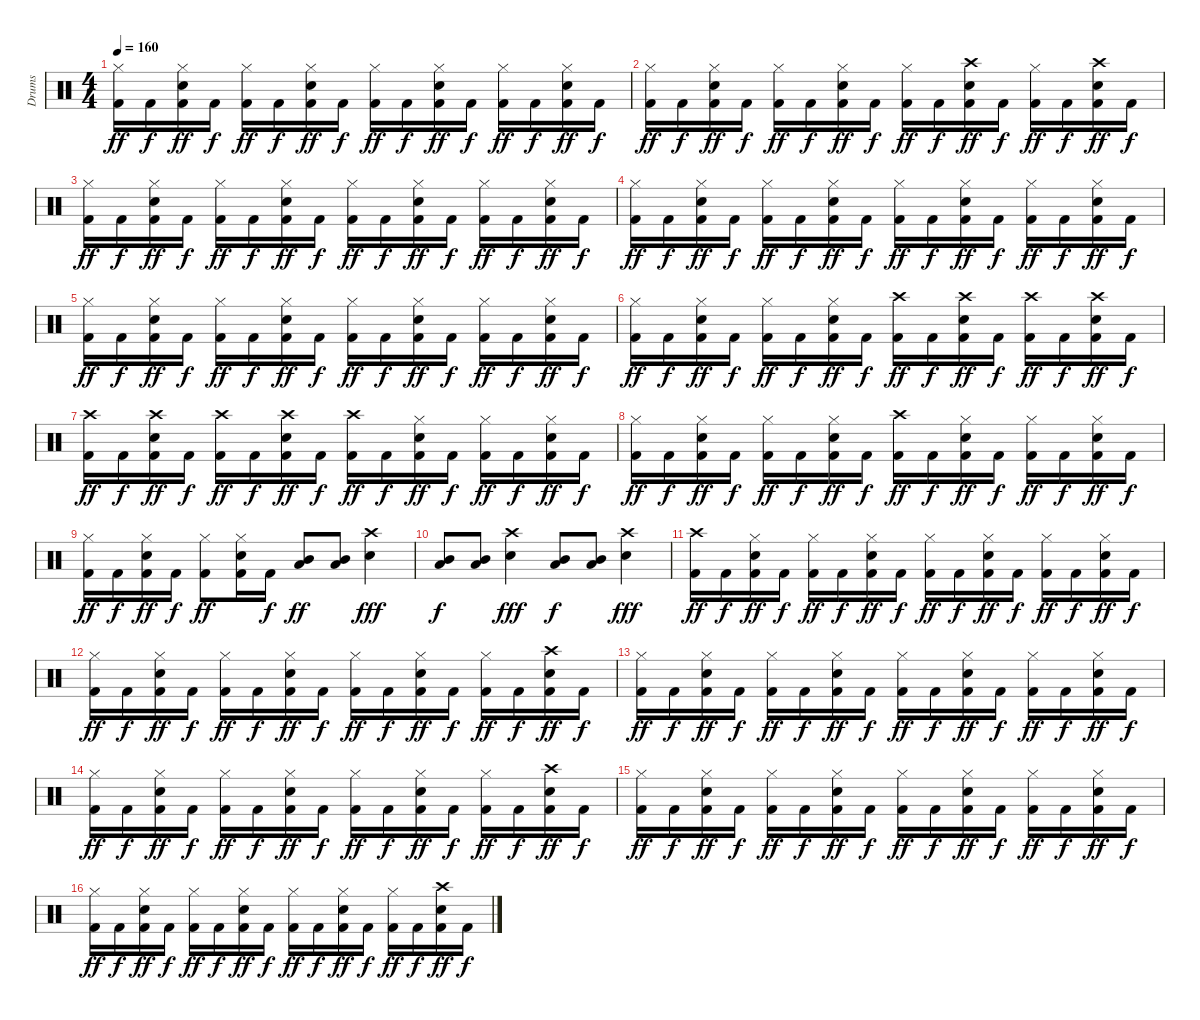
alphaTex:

\track ("Drums" "Drums") {instrument percussion}
\staff {score}
\articulation defaults
\ts (4 4)
\tempo 160
\clef neutral
\ks c
("Hi-Hat (closed)" "Kick (hit) 2").16{dy ff} "Kick (hit) 2".16{dy f} ("Hi-Hat (closed)" "Snare (hit) 2" "Kick (hit) 2").16{dy ff} "Kick (hit) 2".16{dy f} ("Hi-Hat (closed)" "Kick (hit) 2").16{dy ff} "Kick (hit) 2".16{dy f} ("Hi-Hat (closed)" "Snare (hit) 2" "Kick (hit) 2").16{dy ff} "Kick (hit) 2".16{dy f} ("Hi-Hat (closed)" "Kick (hit) 2").16{dy ff} "Kick (hit) 2".16{dy f} ("Hi-Hat (closed)" "Snare (hit) 2" "Kick (hit) 2").16{dy ff} "Kick (hit) 2".16{dy f} ("Hi-Hat (closed)" "Kick (hit) 2").16{dy ff} "Kick (hit) 2".16{dy f} ("Hi-Hat (closed)" "Snare (hit) 2" "Kick (hit) 2").16{dy ff} "Kick (hit) 2".16{dy f} |
("Hi-Hat (closed)" "Kick (hit) 2").16{dy ff} "Kick (hit) 2".16{dy f} ("Hi-Hat (closed)" "Snare (hit) 2" "Kick (hit) 2").16{dy ff} "Kick (hit) 2".16{dy f} ("Hi-Hat (closed)" "Kick (hit) 2").16{dy ff} "Kick (hit) 2".16{dy f} ("Hi-Hat (closed)" "Snare (hit) 2" "Kick (hit) 2").16{dy ff} "Kick (hit) 2".16{dy f} ("Hi-Hat (closed)" "Kick (hit) 2").16{dy ff} "Kick (hit) 2".16{dy f} ("Crash high (hit)" "Snare (hit) 2" "Kick (hit) 2").16{dy ff} "Kick (hit) 2".16{dy f} ("Hi-Hat (closed)" "Kick (hit) 2").16{dy ff} "Kick (hit) 2".16{dy f} ("Crash high (hit)" "Snare (hit) 2" "Kick (hit) 2").16{dy ff} "Kick (hit) 2".16{dy f} |
("Hi-Hat (closed)" "Kick (hit) 2").16{dy ff} "Kick (hit) 2".16{dy f} ("Hi-Hat (closed)" "Snare (hit) 2" "Kick (hit) 2").16{dy ff} "Kick (hit) 2".16{dy f} ("Hi-Hat (closed)" "Kick (hit) 2").16{dy ff} "Kick (hit) 2".16{dy f} ("Hi-Hat (closed)" "Snare (hit) 2" "Kick (hit) 2").16{dy ff} "Kick (hit) 2".16{dy f} ("Hi-Hat (closed)" "Kick (hit) 2").16{dy ff} "Kick (hit) 2".16{dy f} ("Hi-Hat (closed)" "Snare (hit) 2" "Kick (hit) 2").16{dy ff} "Kick (hit) 2".16{dy f} ("Hi-Hat (closed)" "Kick (hit) 2").16{dy ff} "Kick (hit) 2".16{dy f} ("Hi-Hat (closed)" "Snare (hit) 2" "Kick (hit) 2").16{dy ff} "Kick (hit) 2".16{dy f} |
("Hi-Hat (closed)" "Kick (hit) 2").16{dy ff} "Kick (hit) 2".16{dy f} ("Hi-Hat (closed)" "Snare (hit) 2" "Kick (hit) 2").16{dy ff} "Kick (hit) 2".16{dy f} ("Hi-Hat (closed)" "Kick (hit) 2").16{dy ff} "Kick (hit) 2".16{dy f} ("Hi-Hat (closed)" "Snare (hit) 2" "Kick (hit) 2").16{dy ff} "Kick (hit) 2".16{dy f} ("Hi-Hat (closed)" "Kick (hit) 2").16{dy ff} "Kick (hit) 2".16{dy f} ("Hi-Hat (closed)" "Snare (hit) 2" "Kick (hit) 2").16{dy ff} "Kick (hit) 2".16{dy f} ("Hi-Hat (closed)" "Kick (hit) 2").16{dy ff} "Kick (hit) 2".16{dy f} ("Hi-Hat (closed)" "Snare (hit) 2" "Kick (hit) 2").16{dy ff} "Kick (hit) 2".16{dy f} |
("Hi-Hat (closed)" "Kick (hit) 2").16{dy ff} "Kick (hit) 2".16{dy f} ("Hi-Hat (closed)" "Snare (hit) 2" "Kick (hit) 2").16{dy ff} "Kick (hit) 2".16{dy f} ("Hi-Hat (closed)" "Kick (hit) 2").16{dy ff} "Kick (hit) 2".16{dy f} ("Hi-Hat (closed)" "Snare (hit) 2" "Kick (hit) 2").16{dy ff} "Kick (hit) 2".16{dy f} ("Hi-Hat (closed)" "Kick (hit) 2").16{dy ff} "Kick (hit) 2".16{dy f} ("Hi-Hat (closed)" "Snare (hit) 2" "Kick (hit) 2").16{dy ff} "Kick (hit) 2".16{dy f} ("Hi-Hat (closed)" "Kick (hit) 2").16{dy ff} "Kick (hit) 2".16{dy f} ("Hi-Hat (closed)" "Snare (hit) 2" "Kick (hit) 2").16{dy ff} "Kick (hit) 2".16{dy f} |
("Hi-Hat (closed)" "Kick (hit) 2").16{dy ff} "Kick (hit) 2".16{dy f} ("Hi-Hat (closed)" "Snare (hit) 2" "Kick (hit) 2").16{dy ff} "Kick (hit) 2".16{dy f} ("Hi-Hat (closed)" "Kick (hit) 2").16{dy ff} "Kick (hit) 2".16{dy f} ("Hi-Hat (closed)" "Snare (hit) 2" "Kick (hit) 2").16{dy ff} "Kick (hit) 2".16{dy f} ("Crash high (hit)" "Kick (hit) 2").16{dy ff} "Kick (hit) 2".16{dy f} ("Crash high (hit)" "Snare (hit) 2" "Kick (hit) 2").16{dy ff} "Kick (hit) 2".16{dy f} ("Crash high (hit)" "Kick (hit) 2").16{dy ff} "Kick (hit) 2".16{dy f} ("Crash high (hit)" "Snare (hit) 2" "Kick (hit) 2").16{dy ff} "Kick (hit) 2".16{dy f} |
("Crash high (hit)" "Kick (hit) 2").16{dy ff} "Kick (hit) 2".16{dy f} ("Crash high (hit)" "Snare (hit) 2" "Kick (hit) 2").16{dy ff} "Kick (hit) 2".16{dy f} ("Crash high (hit)" "Kick (hit) 2").16{dy ff} "Kick (hit) 2".16{dy f} ("Crash high (hit)" "Snare (hit) 2" "Kick (hit) 2").16{dy ff} "Kick (hit) 2".16{dy f} ("Crash high (hit)" "Kick (hit) 2").16{dy ff} "Kick (hit) 2".16{dy f} ("Hi-Hat (closed)" "Snare (hit) 2" "Kick (hit) 2").16{dy ff} "Kick (hit) 2".16{dy f} ("Hi-Hat (closed)" "Kick (hit) 2").16{dy ff} "Kick (hit) 2".16{dy f} ("Hi-Hat (closed)" "Snare (hit) 2" "Kick (hit) 2").16{dy ff} "Kick (hit) 2".16{dy f} |
("Hi-Hat (closed)" "Kick (hit) 2").16{dy ff} "Kick (hit) 2".16{dy f} ("Hi-Hat (closed)" "Snare (hit) 2" "Kick (hit) 2").16{dy ff} "Kick (hit) 2".16{dy f} ("Hi-Hat (closed)" "Kick (hit) 2").16{dy ff} "Kick (hit) 2".16{dy f} ("Hi-Hat (closed)" "Snare (hit) 2" "Kick (hit) 2").16{dy ff} "Kick (hit) 2".16{dy f} ("Crash high (hit)" "Kick (hit) 2").16{dy ff} "Kick (hit) 2".16{dy f} ("Hi-Hat (closed)" "Snare (hit) 2" "Kick (hit) 2").16{dy ff} "Kick (hit) 2".16{dy f} ("Hi-Hat (closed)" "Kick (hit) 2").16{dy ff} "Kick (hit) 2".16{dy f} ("Hi-Hat (closed)" "Snare (hit) 2" "Kick (hit) 2").16{dy ff} "Kick (hit) 2".16{dy f} |
("Hi-Hat (closed)" "Kick (hit) 2").16{dy ff} "Kick (hit) 2".16{dy f} ("Hi-Hat (closed)" "Snare (hit) 2" "Kick (hit) 2").16{dy ff} "Kick (hit) 2".16{dy f} ("Hi-Hat (closed)" "Kick (hit) 2").8{dy ff} ("Hi-Hat (closed)" "Snare (hit) 2" "Kick (hit) 2").16 "Kick (hit) 2".16{dy f} ("Mid Tom (hit)" "Low Tom (hit)").8{dy ff} ("Mid Tom (hit)" "Low Tom (hit)").8 ("Crash high (hit)" "Snare (hit) 2").4{dy fff} |
("Mid Tom (hit)" "Low Tom (hit)").8{dy f} ("Mid Tom (hit)" "Low Tom (hit)").8 ("Crash high (hit)" "Snare (hit) 2").4{dy fff} ("Mid Tom (hit)" "Low Tom (hit)").8{dy f} ("Mid Tom (hit)" "Low Tom (hit)").8 ("Crash high (hit)" "Snare (hit) 2").4{dy fff} |
("Crash high (hit)" "Kick (hit) 2").16{dy ff} "Kick (hit) 2".16{dy f} ("Hi-Hat (closed)" "Snare (hit) 2" "Kick (hit) 2").16{dy ff} "Kick (hit) 2".16{dy f} ("Hi-Hat (closed)" "Kick (hit) 2").16{dy ff} "Kick (hit) 2".16{dy f} ("Hi-Hat (closed)" "Snare (hit) 2" "Kick (hit) 2").16{dy ff} "Kick (hit) 2".16{dy f} ("Hi-Hat (closed)" "Kick (hit) 2").16{dy ff} "Kick (hit) 2".16{dy f} ("Hi-Hat (closed)" "Snare (hit) 2" "Kick (hit) 2").16{dy ff} "Kick (hit) 2".16{dy f} ("Hi-Hat (closed)" "Kick (hit) 2").16{dy ff} "Kick (hit) 2".16{dy f} ("Hi-Hat (closed)" "Snare (hit) 2" "Kick (hit) 2").16{dy ff} "Kick (hit) 2".16{dy f} |
("Hi-Hat (closed)" "Kick (hit) 2").16{dy ff} "Kick (hit) 2".16{dy f} ("Hi-Hat (closed)" "Snare (hit) 2" "Kick (hit) 2").16{dy ff} "Kick (hit) 2".16{dy f} ("Hi-Hat (closed)" "Kick (hit) 2").16{dy ff} "Kick (hit) 2".16{dy f} ("Hi-Hat (closed)" "Snare (hit) 2" "Kick (hit) 2").16{dy ff} "Kick (hit) 2".16{dy f} ("Hi-Hat (closed)" "Kick (hit) 2").16{dy ff} "Kick (hit) 2".16{dy f} ("Hi-Hat (closed)" "Snare (hit) 2" "Kick (hit) 2").16{dy ff} "Kick (hit) 2".16{dy f} ("Hi-Hat (closed)" "Kick (hit) 2").16{dy ff} "Kick (hit) 2".16{dy f} ("Crash high (hit)" "Snare (hit) 2" "Kick (hit) 2").16{dy ff} "Kick (hit) 2".16{dy f} |
("Hi-Hat (closed)" "Kick (hit) 2").16{dy ff} "Kick (hit) 2".16{dy f} ("Hi-Hat (closed)" "Snare (hit) 2" "Kick (hit) 2").16{dy ff} "Kick (hit) 2".16{dy f} ("Hi-Hat (closed)" "Kick (hit) 2").16{dy ff} "Kick (hit) 2".16{dy f} ("Hi-Hat (closed)" "Snare (hit) 2" "Kick (hit) 2").16{dy ff} "Kick (hit) 2".16{dy f} ("Hi-Hat (closed)" "Kick (hit) 2").16{dy ff} "Kick (hit) 2".16{dy f} ("Hi-Hat (closed)" "Snare (hit) 2" "Kick (hit) 2").16{dy ff} "Kick (hit) 2".16{dy f} ("Hi-Hat (closed)" "Kick (hit) 2").16{dy ff} "Kick (hit) 2".16{dy f} ("Hi-Hat (closed)" "Snare (hit) 2" "Kick (hit) 2").16{dy ff} "Kick (hit) 2".16{dy f} |
("Hi-Hat (closed)" "Kick (hit) 2").16{dy ff} "Kick (hit) 2".16{dy f} ("Hi-Hat (closed)" "Snare (hit) 2" "Kick (hit) 2").16{dy ff} "Kick (hit) 2".16{dy f} ("Hi-Hat (closed)" "Kick (hit) 2").16{dy ff} "Kick (hit) 2".16{dy f} ("Hi-Hat (closed)" "Snare (hit) 2" "Kick (hit) 2").16{dy ff} "Kick (hit) 2".16{dy f} ("Hi-Hat (closed)" "Kick (hit) 2").16{dy ff} "Kick (hit) 2".16{dy f} ("Hi-Hat (closed)" "Snare (hit) 2" "Kick (hit) 2").16{dy ff} "Kick (hit) 2".16{dy f} ("Hi-Hat (closed)" "Kick (hit) 2").16{dy ff} "Kick (hit) 2".16{dy f} ("Crash high (hit)" "Snare (hit) 2" "Kick (hit) 2").16{dy ff} "Kick (hit) 2".16{dy f} |
("Hi-Hat (closed)" "Kick (hit) 2").16{dy ff} "Kick (hit) 2".16{dy f} ("Hi-Hat (closed)" "Snare (hit) 2" "Kick (hit) 2").16{dy ff} "Kick (hit) 2".16{dy f} ("Hi-Hat (closed)" "Kick (hit) 2").16{dy ff} "Kick (hit) 2".16{dy f} ("Hi-Hat (closed)" "Snare (hit) 2" "Kick (hit) 2").16{dy ff} "Kick (hit) 2".16{dy f} ("Hi-Hat (closed)" "Kick (hit) 2").16{dy ff} "Kick (hit) 2".16{dy f} ("Hi-Hat (closed)" "Snare (hit) 2" "Kick (hit) 2").16{dy ff} "Kick (hit) 2".16{dy f} ("Hi-Hat (closed)" "Kick (hit) 2").16{dy ff} "Kick (hit) 2".16{dy f} ("Hi-Hat (closed)" "Snare (hit) 2" "Kick (hit) 2").16{dy ff} "Kick (hit) 2".16{dy f} |
("Hi-Hat (closed)" "Kick (hit) 2").16{dy ff} "Kick (hit) 2".16{dy f} ("Hi-Hat (closed)" "Snare (hit) 2" "Kick (hit) 2").16{dy ff} "Kick (hit) 2".16{dy f} ("Hi-Hat (closed)" "Kick (hit) 2").16{dy ff} "Kick (hit) 2".16{dy f} ("Hi-Hat (closed)" "Snare (hit) 2" "Kick (hit) 2").16{dy ff} "Kick (hit) 2".16{dy f} ("Hi-Hat (closed)" "Kick (hit) 2").16{dy ff} "Kick (hit) 2".16{dy f} ("Hi-Hat (closed)" "Snare (hit) 2" "Kick (hit) 2").16{dy ff} "Kick (hit) 2".16{dy f} ("Hi-Hat (closed)" "Kick (hit) 2").16{dy ff} "Kick (hit) 2".16{dy f} ("Crash high (hit)" "Snare (hit) 2" "Kick (hit) 2").16{dy ff} "Kick (hit) 2".16{dy f}
